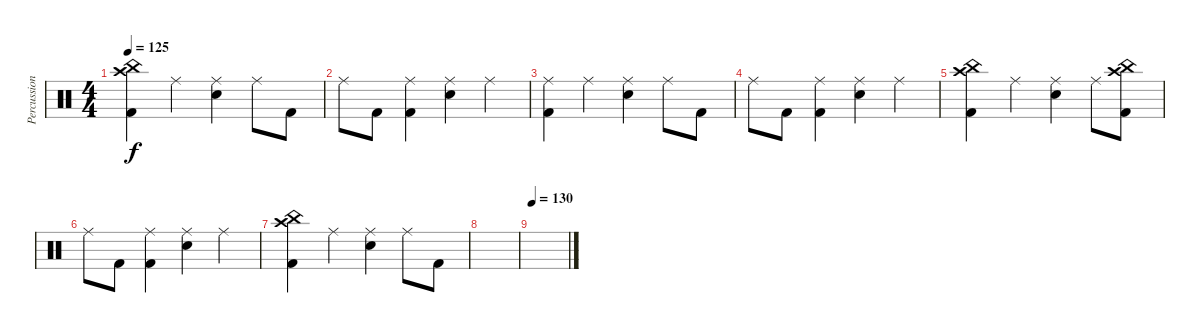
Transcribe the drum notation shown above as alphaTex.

\track ("Percussion" "Percussion") {instrument percussion}
\staff {score}
\articulation defaults
\ts (4 4)
\tempo 125
\clef neutral
\ks c
("Crash high (hit)" "China (hit)" "Kick (hit) 2").4{dy f} "Ride (middle)".4 ("Ride (middle)" "Electric Snare (hit)").4 "Ride (middle)".8 "Kick (hit) 2".8 |
"Ride (middle)".8 "Kick (hit) 2".8 ("Ride (middle)" "Kick (hit) 2").4 ("Ride (middle)" "Electric Snare (hit)").4 "Ride (middle)".4 |
("Ride (middle)" "Kick (hit) 2").4 "Ride (middle)".4 ("Ride (middle)" "Electric Snare (hit)").4 "Ride (middle)".8 "Kick (hit) 2".8 |
"Ride (middle)".8 "Kick (hit) 2".8 ("Ride (middle)" "Kick (hit) 2").4 ("Ride (middle)" "Electric Snare (hit)").4 "Ride (middle)".4 |
("Crash high (hit)" "China (hit)" "Kick (hit) 2").4 "Ride (middle)".4 ("Ride (middle)" "Electric Snare (hit)").4 "Ride (middle)".8 ("Crash high (hit)" "China (hit)" "Kick (hit) 2").8 |
"Ride (middle)".8 "Kick (hit) 2".8 ("Ride (middle)" "Kick (hit) 2").4 ("Ride (middle)" "Electric Snare (hit)").4 "Ride (middle)".4 |
("Crash high (hit)" "China (hit)" "Kick (hit) 2").4 "Ride (middle)".4 ("Ride (middle)" "Electric Snare (hit)").4 "Ride (middle)".8 "Kick (hit) 2".8 |
|
\tempo 130
